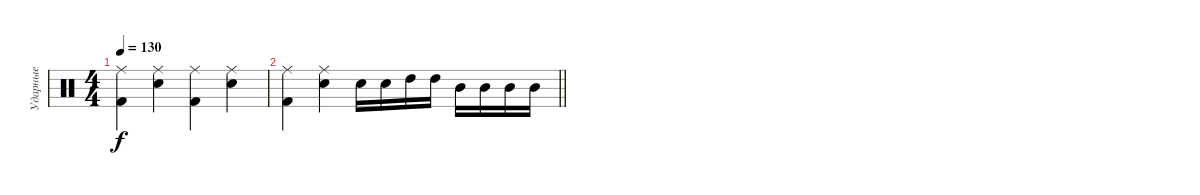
\track ("Ударные" "Ударные") {instrument percussion}
\staff {score}
\articulation defaults
\ts (4 4)
\tempo 130
\clef neutral
\ks c
("Ride (middle)" "Kick (hit) 2").4{dy f} ("Ride (middle)" "Snare (hit) 2").4 ("Ride (middle)" "Kick (hit) 2").4 ("Ride (middle)" "Snare (hit) 2").4 |
\barLineRight lightlight
("Ride (middle)" "Kick (hit) 2").4 ("Ride (middle)" "Snare (hit) 2").4 "Snare (hit) 2".16 "Snare (hit) 2".16 "High Tom (hit)".16 "High Tom (hit)".16 "Mid Tom (hit)".16 "Mid Tom (hit)".16 "Mid Tom (hit)".16 "Mid Tom (hit)".16
